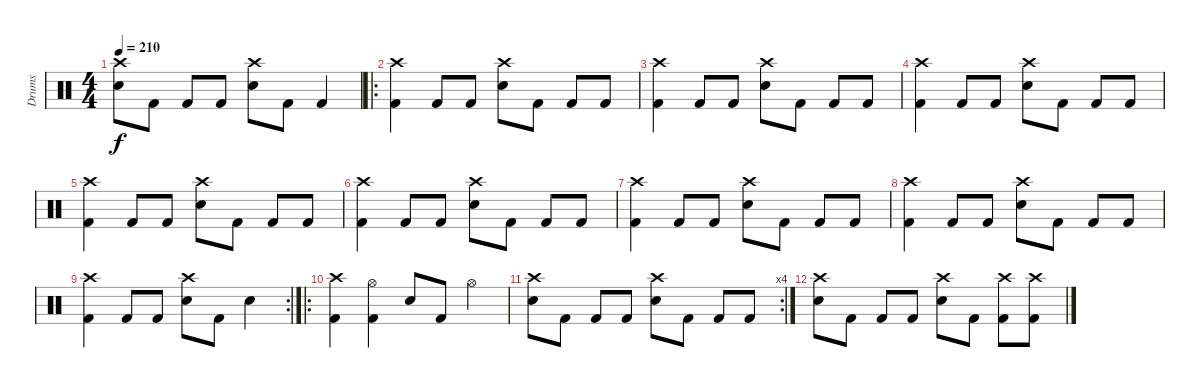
\track ("Drums" "Drums") {instrument percussion}
\staff {score}
\articulation defaults
\ts (4 4)
\tempo 210
\clef neutral
\ks c
("Crash high (hit)" "Electric Snare (hit)").8{dy f} "Kick (hit) 2".8 "Kick (hit) 2".8 "Kick (hit) 2".8 ("Crash high (hit)" "Electric Snare (hit)").8 "Kick (hit) 2".8 "Kick (hit) 2".4 |
\ro
("Crash high (hit)" "Kick (hit) 2").4 "Kick (hit) 2".8 "Kick (hit) 2".8 ("Crash high (hit)" "Electric Snare (hit)").8 "Kick (hit) 2".8 "Kick (hit) 2".8 "Kick (hit) 2".8 |
("Crash high (hit)" "Kick (hit) 2").4 "Kick (hit) 2".8 "Kick (hit) 2".8 ("Crash high (hit)" "Electric Snare (hit)").8 "Kick (hit) 2".8 "Kick (hit) 2".8 "Kick (hit) 2".8 |
("Crash high (hit)" "Kick (hit) 2").4 "Kick (hit) 2".8 "Kick (hit) 2".8 ("Crash high (hit)" "Electric Snare (hit)").8 "Kick (hit) 2".8 "Kick (hit) 2".8 "Kick (hit) 2".8 |
("Crash high (hit)" "Kick (hit) 2").4 "Kick (hit) 2".8 "Kick (hit) 2".8 ("Crash high (hit)" "Electric Snare (hit)").8 "Kick (hit) 2".8 "Kick (hit) 2".8 "Kick (hit) 2".8 |
("Crash high (hit)" "Kick (hit) 2").4 "Kick (hit) 2".8 "Kick (hit) 2".8 ("Crash high (hit)" "Electric Snare (hit)").8 "Kick (hit) 2".8 "Kick (hit) 2".8 "Kick (hit) 2".8 |
("Crash high (hit)" "Kick (hit) 2").4 "Kick (hit) 2".8 "Kick (hit) 2".8 ("Crash high (hit)" "Electric Snare (hit)").8 "Kick (hit) 2".8 "Kick (hit) 2".8 "Kick (hit) 2".8 |
("Crash high (hit)" "Kick (hit) 2").4 "Kick (hit) 2".8 "Kick (hit) 2".8 ("Crash high (hit)" "Electric Snare (hit)").8 "Kick (hit) 2".8 "Kick (hit) 2".8 "Kick (hit) 2".8 |
\rc 2
("Crash high (hit)" "Kick (hit) 2").4 "Kick (hit) 2".8 "Kick (hit) 2".8 ("Crash high (hit)" "Electric Snare (hit)").8 "Kick (hit) 2".8 "Electric Snare (hit)".4 |
\ro
("Crash high (hit)" "Kick (hit) 2").4 ("Hi-Hat (open)" "Kick (hit) 2").4 "Electric Snare (hit)".8 "Kick (hit) 2".8 "Hi-Hat (open)".4 |
\rc 4
("Crash high (hit)" "Electric Snare (hit)").8 "Kick (hit) 2".8 "Kick (hit) 2".8 "Kick (hit) 2".8 ("Crash high (hit)" "Electric Snare (hit)").8 "Kick (hit) 2".8 "Kick (hit) 2".8 "Kick (hit) 2".8 |
("Crash high (hit)" "Electric Snare (hit)").8 "Kick (hit) 2".8 "Kick (hit) 2".8 "Kick (hit) 2".8 ("Crash high (hit)" "Electric Snare (hit)").8 "Kick (hit) 2".8 ("Crash high (hit)" "Kick (hit) 2").8 ("Crash high (hit)" "Kick (hit) 2").8
